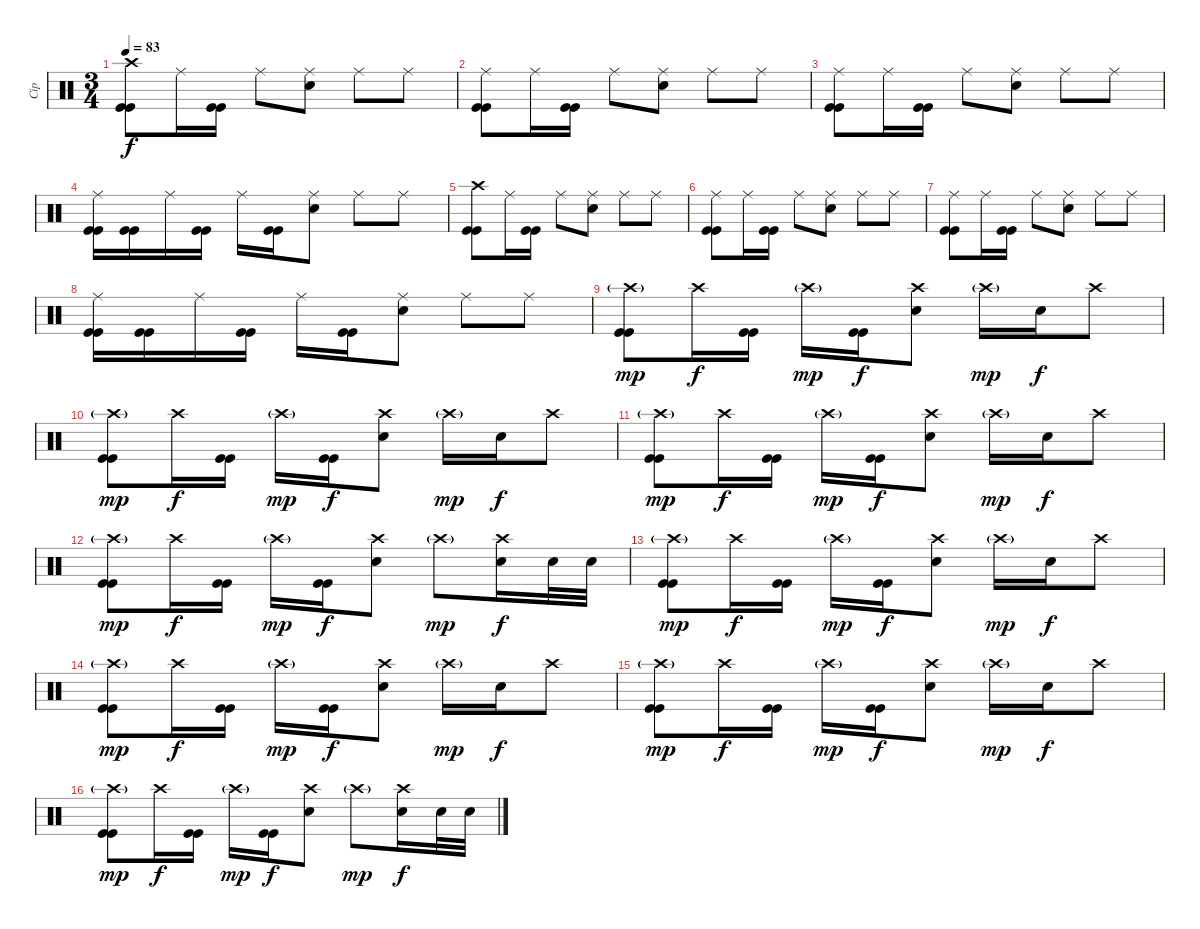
\track ("Cip" "Cip") {instrument percussion}
\staff {score}
\articulation defaults
\ts (3 4)
\tempo 83
\clef neutral
\ks c
("Crash high (hit)" "Kick (hit)" "Kick (hit)").8{dy f} "Ride (middle)".16 ("Kick (hit)" "Kick (hit)").16 "Ride (middle)".8 ("Ride (middle)" "Electric Snare (hit)").8 "Ride (middle)".8 "Ride (middle)".8 |
("Ride (middle)" "Kick (hit)" "Kick (hit)").8 "Ride (middle)".16 ("Kick (hit)" "Kick (hit)").16 "Ride (middle)".8 ("Ride (middle)" "Electric Snare (hit)").8 "Ride (middle)".8 "Ride (middle)".8 |
("Ride (middle)" "Kick (hit)" "Kick (hit)").8 "Ride (middle)".16 ("Kick (hit)" "Kick (hit)").16 "Ride (middle)".8 ("Ride (middle)" "Electric Snare (hit)").8 "Ride (middle)".8 "Ride (middle)".8 |
("Ride (middle)" "Kick (hit)" "Kick (hit)").16 ("Kick (hit)" "Kick (hit)").16 "Ride (middle)".16 ("Kick (hit)" "Kick (hit)").16 "Ride (middle)".16 ("Kick (hit)" "Kick (hit)").16 ("Ride (middle)" "Electric Snare (hit)").8 "Ride (middle)".8 "Ride (middle)".8 |
("Crash high (hit)" "Kick (hit)" "Kick (hit)").8 "Ride (middle)".16 ("Kick (hit)" "Kick (hit)").16 "Ride (middle)".8 ("Ride (middle)" "Electric Snare (hit)").8 "Ride (middle)".8 "Ride (middle)".8 |
("Ride (middle)" "Kick (hit)" "Kick (hit)").8 "Ride (middle)".16 ("Kick (hit)" "Kick (hit)").16 "Ride (middle)".8 ("Ride (middle)" "Electric Snare (hit)").8 "Ride (middle)".8 "Ride (middle)".8 |
("Ride (middle)" "Kick (hit)" "Kick (hit)").8 "Ride (middle)".16 ("Kick (hit)" "Kick (hit)").16 "Ride (middle)".8 ("Ride (middle)" "Electric Snare (hit)").8 "Ride (middle)".8 "Ride (middle)".8 |
("Ride (middle)" "Kick (hit)" "Kick (hit)").16 ("Kick (hit)" "Kick (hit)").16 "Ride (middle)".16 ("Kick (hit)" "Kick (hit)").16 "Ride (middle)".16 ("Kick (hit)" "Kick (hit)").16 ("Ride (middle)" "Electric Snare (hit)").8 "Ride (middle)".8 "Ride (middle)".8 |
("Crash high (hit)"{g} "Kick (hit)" "Kick (hit)").8{dy mp} "Crash high (hit)".16{dy f} ("Kick (hit)" "Kick (hit)").16 "Crash high (hit)"{g}.16{dy mp} ("Kick (hit)" "Kick (hit)").16{dy f} ("Crash high (hit)" "Electric Snare (hit)").8 "Crash high (hit)"{g}.16{dy mp} "Electric Snare (hit)".16{dy f} "Crash high (hit)".8 |
("Crash high (hit)"{g} "Kick (hit)" "Kick (hit)").8{dy mp} "Crash high (hit)".16{dy f} ("Kick (hit)" "Kick (hit)").16 "Crash high (hit)"{g}.16{dy mp} ("Kick (hit)" "Kick (hit)").16{dy f} ("Crash high (hit)" "Electric Snare (hit)").8 "Crash high (hit)"{g}.16{dy mp} "Electric Snare (hit)".16{dy f} "Crash high (hit)".8 |
("Crash high (hit)"{g} "Kick (hit)" "Kick (hit)").8{dy mp} "Crash high (hit)".16{dy f} ("Kick (hit)" "Kick (hit)").16 "Crash high (hit)"{g}.16{dy mp} ("Kick (hit)" "Kick (hit)").16{dy f} ("Crash high (hit)" "Electric Snare (hit)").8 "Crash high (hit)"{g}.16{dy mp} "Electric Snare (hit)".16{dy f} "Crash high (hit)".8 |
("Crash high (hit)"{g} "Kick (hit)" "Kick (hit)").8{dy mp} "Crash high (hit)".16{dy f} ("Kick (hit)" "Kick (hit)").16 "Crash high (hit)"{g}.16{dy mp} ("Kick (hit)" "Kick (hit)").16{dy f} ("Crash high (hit)" "Electric Snare (hit)").8 "Crash high (hit)"{g}.8{dy mp} ("Crash high (hit)" "Electric Snare (hit)").16{dy f} "Electric Snare (hit)".32 "Electric Snare (hit)".32 |
("Crash high (hit)"{g} "Kick (hit)" "Kick (hit)").8{dy mp} "Crash high (hit)".16{dy f} ("Kick (hit)" "Kick (hit)").16 "Crash high (hit)"{g}.16{dy mp} ("Kick (hit)" "Kick (hit)").16{dy f} ("Crash high (hit)" "Electric Snare (hit)").8 "Crash high (hit)"{g}.16{dy mp} "Electric Snare (hit)".16{dy f} "Crash high (hit)".8 |
("Crash high (hit)"{g} "Kick (hit)" "Kick (hit)").8{dy mp} "Crash high (hit)".16{dy f} ("Kick (hit)" "Kick (hit)").16 "Crash high (hit)"{g}.16{dy mp} ("Kick (hit)" "Kick (hit)").16{dy f} ("Crash high (hit)" "Electric Snare (hit)").8 "Crash high (hit)"{g}.16{dy mp} "Electric Snare (hit)".16{dy f} "Crash high (hit)".8 |
("Crash high (hit)"{g} "Kick (hit)" "Kick (hit)").8{dy mp} "Crash high (hit)".16{dy f} ("Kick (hit)" "Kick (hit)").16 "Crash high (hit)"{g}.16{dy mp} ("Kick (hit)" "Kick (hit)").16{dy f} ("Crash high (hit)" "Electric Snare (hit)").8 "Crash high (hit)"{g}.16{dy mp} "Electric Snare (hit)".16{dy f} "Crash high (hit)".8 |
("Crash high (hit)"{g} "Kick (hit)" "Kick (hit)").8{dy mp} "Crash high (hit)".16{dy f} ("Kick (hit)" "Kick (hit)").16 "Crash high (hit)"{g}.16{dy mp} ("Kick (hit)" "Kick (hit)").16{dy f} ("Crash high (hit)" "Electric Snare (hit)").8 "Crash high (hit)"{g}.8{dy mp} ("Crash high (hit)" "Electric Snare (hit)").16{dy f} "Electric Snare (hit)".32 "Electric Snare (hit)".32
